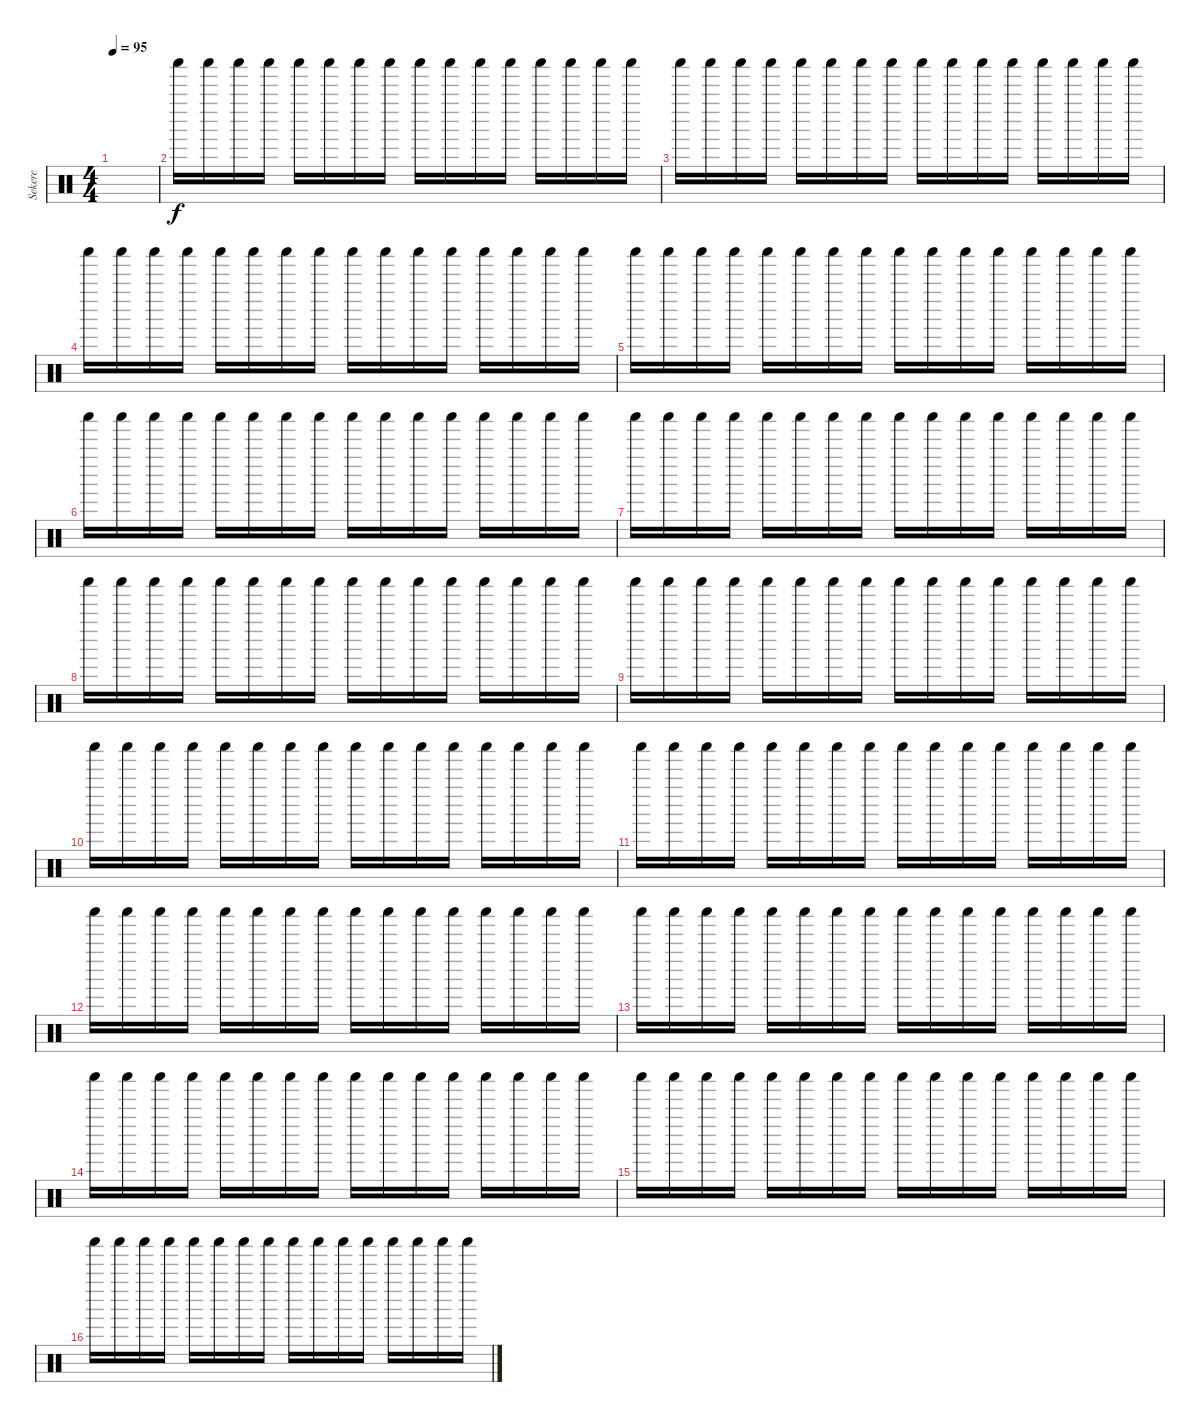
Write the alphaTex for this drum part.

\track ("Sekere" "Sekere") {instrument percussion}
\staff {score}
\articulation defaults
\ts (4 4)
\tempo 95
\clef neutral
\ks c
|
"Shaker (hit)".16{volume 5} "Shaker (hit)".16 "Shaker (hit)".16 "Shaker (hit)".16 "Shaker (hit)".16 "Shaker (hit)".16 "Shaker (hit)".16 "Shaker (hit)".16 "Shaker (hit)".16 "Shaker (hit)".16 "Shaker (hit)".16 "Shaker (hit)".16 "Shaker (hit)".16 "Shaker (hit)".16 "Shaker (hit)".16 "Shaker (hit)".16 |
"Shaker (hit)".16 "Shaker (hit)".16 "Shaker (hit)".16 "Shaker (hit)".16 "Shaker (hit)".16 "Shaker (hit)".16 "Shaker (hit)".16 "Shaker (hit)".16 "Shaker (hit)".16 "Shaker (hit)".16 "Shaker (hit)".16 "Shaker (hit)".16 "Shaker (hit)".16 "Shaker (hit)".16 "Shaker (hit)".16 "Shaker (hit)".16 |
"Shaker (hit)".16 "Shaker (hit)".16 "Shaker (hit)".16 "Shaker (hit)".16 "Shaker (hit)".16 "Shaker (hit)".16 "Shaker (hit)".16 "Shaker (hit)".16 "Shaker (hit)".16 "Shaker (hit)".16 "Shaker (hit)".16 "Shaker (hit)".16 "Shaker (hit)".16 "Shaker (hit)".16 "Shaker (hit)".16 "Shaker (hit)".16 |
"Shaker (hit)".16 "Shaker (hit)".16 "Shaker (hit)".16 "Shaker (hit)".16 "Shaker (hit)".16 "Shaker (hit)".16 "Shaker (hit)".16 "Shaker (hit)".16 "Shaker (hit)".16 "Shaker (hit)".16 "Shaker (hit)".16 "Shaker (hit)".16 "Shaker (hit)".16 "Shaker (hit)".16 "Shaker (hit)".16 "Shaker (hit)".16 |
"Shaker (hit)".16 "Shaker (hit)".16 "Shaker (hit)".16 "Shaker (hit)".16 "Shaker (hit)".16 "Shaker (hit)".16 "Shaker (hit)".16 "Shaker (hit)".16 "Shaker (hit)".16 "Shaker (hit)".16 "Shaker (hit)".16 "Shaker (hit)".16 "Shaker (hit)".16 "Shaker (hit)".16 "Shaker (hit)".16 "Shaker (hit)".16 |
"Shaker (hit)".16 "Shaker (hit)".16 "Shaker (hit)".16 "Shaker (hit)".16 "Shaker (hit)".16 "Shaker (hit)".16 "Shaker (hit)".16 "Shaker (hit)".16 "Shaker (hit)".16 "Shaker (hit)".16 "Shaker (hit)".16 "Shaker (hit)".16 "Shaker (hit)".16 "Shaker (hit)".16 "Shaker (hit)".16 "Shaker (hit)".16 |
"Shaker (hit)".16 "Shaker (hit)".16 "Shaker (hit)".16 "Shaker (hit)".16 "Shaker (hit)".16 "Shaker (hit)".16 "Shaker (hit)".16 "Shaker (hit)".16 "Shaker (hit)".16 "Shaker (hit)".16 "Shaker (hit)".16 "Shaker (hit)".16 "Shaker (hit)".16 "Shaker (hit)".16 "Shaker (hit)".16 "Shaker (hit)".16 |
"Shaker (hit)".16 "Shaker (hit)".16 "Shaker (hit)".16 "Shaker (hit)".16 "Shaker (hit)".16 "Shaker (hit)".16 "Shaker (hit)".16 "Shaker (hit)".16 "Shaker (hit)".16 "Shaker (hit)".16 "Shaker (hit)".16 "Shaker (hit)".16 "Shaker (hit)".16 "Shaker (hit)".16 "Shaker (hit)".16 "Shaker (hit)".16 |
"Shaker (hit)".16 "Shaker (hit)".16 "Shaker (hit)".16 "Shaker (hit)".16 "Shaker (hit)".16 "Shaker (hit)".16 "Shaker (hit)".16 "Shaker (hit)".16 "Shaker (hit)".16 "Shaker (hit)".16 "Shaker (hit)".16 "Shaker (hit)".16 "Shaker (hit)".16 "Shaker (hit)".16 "Shaker (hit)".16 "Shaker (hit)".16 |
"Shaker (hit)".16 "Shaker (hit)".16 "Shaker (hit)".16 "Shaker (hit)".16 "Shaker (hit)".16 "Shaker (hit)".16 "Shaker (hit)".16 "Shaker (hit)".16 "Shaker (hit)".16 "Shaker (hit)".16 "Shaker (hit)".16 "Shaker (hit)".16 "Shaker (hit)".16 "Shaker (hit)".16 "Shaker (hit)".16 "Shaker (hit)".16 |
"Shaker (hit)".16 "Shaker (hit)".16 "Shaker (hit)".16 "Shaker (hit)".16 "Shaker (hit)".16 "Shaker (hit)".16 "Shaker (hit)".16 "Shaker (hit)".16 "Shaker (hit)".16 "Shaker (hit)".16 "Shaker (hit)".16 "Shaker (hit)".16 "Shaker (hit)".16 "Shaker (hit)".16 "Shaker (hit)".16 "Shaker (hit)".16 |
"Shaker (hit)".16 "Shaker (hit)".16 "Shaker (hit)".16 "Shaker (hit)".16 "Shaker (hit)".16 "Shaker (hit)".16 "Shaker (hit)".16 "Shaker (hit)".16 "Shaker (hit)".16 "Shaker (hit)".16 "Shaker (hit)".16 "Shaker (hit)".16 "Shaker (hit)".16 "Shaker (hit)".16 "Shaker (hit)".16 "Shaker (hit)".16 |
"Shaker (hit)".16 "Shaker (hit)".16 "Shaker (hit)".16 "Shaker (hit)".16 "Shaker (hit)".16 "Shaker (hit)".16 "Shaker (hit)".16 "Shaker (hit)".16 "Shaker (hit)".16 "Shaker (hit)".16 "Shaker (hit)".16 "Shaker (hit)".16 "Shaker (hit)".16 "Shaker (hit)".16 "Shaker (hit)".16 "Shaker (hit)".16 |
"Shaker (hit)".16 "Shaker (hit)".16 "Shaker (hit)".16 "Shaker (hit)".16 "Shaker (hit)".16 "Shaker (hit)".16 "Shaker (hit)".16 "Shaker (hit)".16 "Shaker (hit)".16 "Shaker (hit)".16 "Shaker (hit)".16 "Shaker (hit)".16 "Shaker (hit)".16 "Shaker (hit)".16 "Shaker (hit)".16 "Shaker (hit)".16 |
"Shaker (hit)".16 "Shaker (hit)".16 "Shaker (hit)".16 "Shaker (hit)".16 "Shaker (hit)".16 "Shaker (hit)".16 "Shaker (hit)".16 "Shaker (hit)".16 "Shaker (hit)".16 "Shaker (hit)".16 "Shaker (hit)".16 "Shaker (hit)".16 "Shaker (hit)".16 "Shaker (hit)".16 "Shaker (hit)".16 "Shaker (hit)".16
